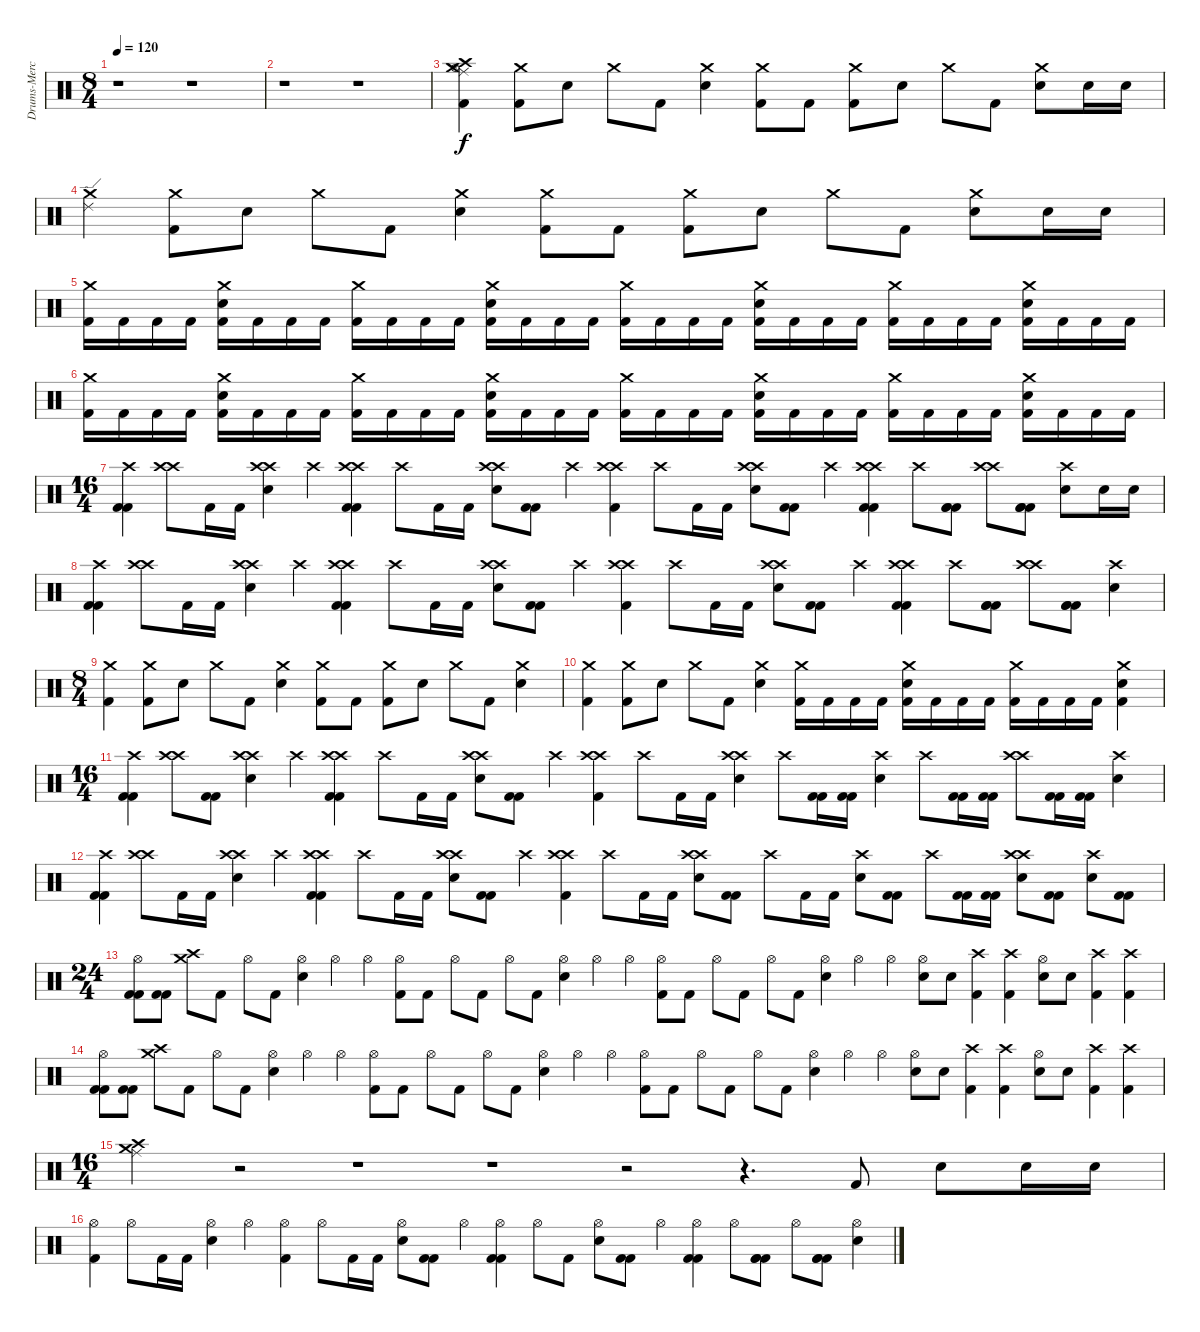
\track ("Drums-Mercedes" "Drums-Merc") {instrument percussion}
\staff {score}
\articulation defaults
\ts (8 4)
\tempo 120
\clef neutral
\ks c
r.1{dy f} r.1 |
r.1 r.1 |
("Crash medium (hit)" "Kick (hit) 2" "Hi-Hat (open)" "Ride (middle)" "Crash high (hit)").4 ("Crash medium (hit)" "Kick (hit) 2").8 "Electric Snare (hit)".8 "Crash medium (hit)".8 "Kick (hit) 2".8 ("Crash medium (hit)" "Electric Snare (hit)").4 ("Crash medium (hit)" "Kick (hit) 2").8 "Kick (hit) 2".8 ("Crash medium (hit)" "Kick (hit) 2").8 "Electric Snare (hit)".8 "Crash medium (hit)".8 "Kick (hit) 2".8 ("Crash medium (hit)" "Electric Snare (hit)").8 "Electric Snare (hit)".16 "Electric Snare (hit)".16 |
("Crash medium (hit)" "Ride (edge) 2").4 ("Crash medium (hit)" "Kick (hit) 2").8 "Electric Snare (hit)".8 "Crash medium (hit)".8 "Kick (hit) 2".8 ("Crash medium (hit)" "Electric Snare (hit)").4 ("Crash medium (hit)" "Kick (hit) 2").8 "Kick (hit) 2".8 ("Crash medium (hit)" "Kick (hit) 2").8 "Electric Snare (hit)".8 "Crash medium (hit)".8 "Kick (hit) 2".8 ("Crash medium (hit)" "Electric Snare (hit)").8 "Electric Snare (hit)".16 "Electric Snare (hit)".16 |
("Crash medium (hit)" "Kick (hit) 2").16 "Kick (hit) 2".16 "Kick (hit) 2".16 "Kick (hit) 2".16 ("Crash medium (hit)" "Kick (hit) 2" "Electric Snare (hit)").16 "Kick (hit) 2".16 "Kick (hit) 2".16 "Kick (hit) 2".16 ("Crash medium (hit)" "Kick (hit) 2").16 "Kick (hit) 2".16 "Kick (hit) 2".16 "Kick (hit) 2".16 ("Crash medium (hit)" "Kick (hit) 2" "Electric Snare (hit)").16 "Kick (hit) 2".16 "Kick (hit) 2".16 "Kick (hit) 2".16 ("Crash medium (hit)" "Kick (hit) 2").16 "Kick (hit) 2".16 "Kick (hit) 2".16 "Kick (hit) 2".16 ("Crash medium (hit)" "Kick (hit) 2" "Electric Snare (hit)").16 "Kick (hit) 2".16 "Kick (hit) 2".16 "Kick (hit) 2".16 ("Crash medium (hit)" "Kick (hit) 2").16 "Kick (hit) 2".16 "Kick (hit) 2".16 "Kick (hit) 2".16 ("Crash medium (hit)" "Kick (hit) 2" "Electric Snare (hit)").16 "Kick (hit) 2".16 "Kick (hit) 2".16 "Kick (hit) 2".16 |
("Crash medium (hit)" "Kick (hit) 2").16 "Kick (hit) 2".16 "Kick (hit) 2".16 "Kick (hit) 2".16 ("Crash medium (hit)" "Kick (hit) 2" "Electric Snare (hit)").16 "Kick (hit) 2".16 "Kick (hit) 2".16 "Kick (hit) 2".16 ("Crash medium (hit)" "Kick (hit) 2").16 "Kick (hit) 2".16 "Kick (hit) 2".16 "Kick (hit) 2".16 ("Crash medium (hit)" "Kick (hit) 2" "Electric Snare (hit)").16 "Kick (hit) 2".16 "Kick (hit) 2".16 "Kick (hit) 2".16 ("Crash medium (hit)" "Kick (hit) 2").16 "Kick (hit) 2".16 "Kick (hit) 2".16 "Kick (hit) 2".16 ("Crash medium (hit)" "Kick (hit) 2" "Electric Snare (hit)").16 "Kick (hit) 2".16 "Kick (hit) 2".16 "Kick (hit) 2".16 ("Crash medium (hit)" "Kick (hit) 2").16 "Kick (hit) 2".16 "Kick (hit) 2".16 "Kick (hit) 2".16 ("Crash medium (hit)" "Kick (hit) 2" "Electric Snare (hit)").16 "Kick (hit) 2".16 "Kick (hit) 2".16 "Kick (hit) 2".16 |
\ts (16 4)
("Crash high (hit)" "Kick (hit) 2" "Kick (hit) 2").4 ("Crash high (hit)" "Crash high (hit)").8 "Kick (hit) 2".16 "Kick (hit) 2".16 ("Crash high (hit)" "Crash high (hit)" "Electric Snare (hit)").4 "Crash high (hit)".4 ("Crash high (hit)" "Crash high (hit)" "Kick (hit) 2" "Kick (hit) 2").4 "Crash high (hit)".8 "Kick (hit) 2".16 "Kick (hit) 2".16 ("Crash high (hit)" "Crash high (hit)" "Electric Snare (hit)").8 ("Kick (hit) 2" "Kick (hit) 2").8 "Crash high (hit)".4 ("Crash high (hit)" "Crash high (hit)" "Kick (hit) 2").4 "Crash high (hit)".8 "Kick (hit) 2".16 "Kick (hit) 2".16 ("Crash high (hit)" "Crash high (hit)" "Electric Snare (hit)").8 ("Kick (hit) 2" "Kick (hit) 2").8 "Crash high (hit)".4 ("Crash high (hit)" "Crash high (hit)" "Kick (hit) 2" "Kick (hit) 2").4 "Crash high (hit)".8 ("Kick (hit) 2" "Kick (hit) 2" "Kick (hit) 2").8 ("Crash high (hit)" "Crash high (hit)").8 ("Kick (hit) 2" "Kick (hit) 2" "Kick (hit) 2").8 ("Crash high (hit)" "Electric Snare (hit)").8 "Electric Snare (hit)".16 "Electric Snare (hit)".16 |
("Crash high (hit)" "Kick (hit) 2" "Kick (hit) 2").4 ("Crash high (hit)" "Crash high (hit)").8 "Kick (hit) 2".16 "Kick (hit) 2".16 ("Crash high (hit)" "Crash high (hit)" "Electric Snare (hit)").4 "Crash high (hit)".4 ("Crash high (hit)" "Crash high (hit)" "Kick (hit) 2" "Kick (hit) 2").4 "Crash high (hit)".8 "Kick (hit) 2".16 "Kick (hit) 2".16 ("Crash high (hit)" "Crash high (hit)" "Electric Snare (hit)").8 ("Kick (hit) 2" "Kick (hit) 2").8 "Crash high (hit)".4 ("Crash high (hit)" "Crash high (hit)" "Kick (hit) 2").4 "Crash high (hit)".8 "Kick (hit) 2".16 "Kick (hit) 2".16 ("Crash high (hit)" "Crash high (hit)" "Electric Snare (hit)").8 ("Kick (hit) 2" "Kick (hit) 2").8 "Crash high (hit)".4 ("Crash high (hit)" "Crash high (hit)" "Kick (hit) 2" "Kick (hit) 2").4 "Crash high (hit)".8 ("Kick (hit) 2" "Kick (hit) 2" "Kick (hit) 2").8 ("Crash high (hit)" "Crash high (hit)").8 ("Kick (hit) 2" "Kick (hit) 2" "Kick (hit) 2").8 ("Crash high (hit)" "Electric Snare (hit)").4 |
\ts (8 4)
("Crash medium (hit)" "Kick (hit) 2").4 ("Crash medium (hit)" "Kick (hit) 2").8 "Electric Snare (hit)".8 "Crash medium (hit)".8 "Kick (hit) 2".8 ("Crash medium (hit)" "Electric Snare (hit)").4 ("Crash medium (hit)" "Kick (hit) 2").8 "Kick (hit) 2".8 ("Crash medium (hit)" "Kick (hit) 2").8 "Electric Snare (hit)".8 "Crash medium (hit)".8 "Kick (hit) 2".8 ("Crash medium (hit)" "Electric Snare (hit)").4 |
("Crash medium (hit)" "Kick (hit) 2").4 ("Crash medium (hit)" "Kick (hit) 2").8 "Electric Snare (hit)".8 "Crash medium (hit)".8 "Kick (hit) 2".8 ("Crash medium (hit)" "Electric Snare (hit)").4 ("Crash medium (hit)" "Kick (hit) 2").16 "Kick (hit) 2".16 "Kick (hit) 2".16 "Kick (hit) 2".16 ("Crash medium (hit)" "Electric Snare (hit)" "Kick (hit) 2").16 "Kick (hit) 2".16 "Kick (hit) 2".16 "Kick (hit) 2".16 ("Crash medium (hit)" "Kick (hit) 2").16 "Kick (hit) 2".16 "Kick (hit) 2".16 "Kick (hit) 2".16 ("Crash medium (hit)" "Electric Snare (hit)" "Kick (hit) 2").4 |
\ts (16 4)
("Crash high (hit)" "Kick (hit) 2" "Kick (hit) 2").4 ("Crash high (hit)" "Crash high (hit)").8 ("Kick (hit) 2" "Kick (hit) 2").8 ("Crash high (hit)" "Crash high (hit)" "Electric Snare (hit)").4 "Crash high (hit)".4 ("Crash high (hit)" "Crash high (hit)" "Kick (hit) 2" "Kick (hit) 2").4 "Crash high (hit)".8 "Kick (hit) 2".16 "Kick (hit) 2".16 ("Crash high (hit)" "Crash high (hit)" "Electric Snare (hit)").8 ("Kick (hit) 2" "Kick (hit) 2").8 "Crash high (hit)".4 ("Crash high (hit)" "Crash high (hit)" "Kick (hit) 2").4 "Crash high (hit)".8 "Kick (hit) 2".16 "Kick (hit) 2".16 ("Crash high (hit)" "Crash high (hit)" "Electric Snare (hit)").4 "Crash high (hit)".8 ("Kick (hit) 2" "Kick (hit) 2").16 ("Kick (hit) 2" "Kick (hit) 2").16 ("Crash high (hit)" "Electric Snare (hit)").4 "Crash high (hit)".8 ("Kick (hit) 2" "Kick (hit) 2").16 ("Kick (hit) 2" "Kick (hit) 2").16 ("Crash high (hit)" "Crash high (hit)").8 ("Kick (hit) 2" "Kick (hit) 2").16 ("Kick (hit) 2" "Kick (hit) 2").16 ("Crash high (hit)" "Electric Snare (hit)").4 |
("Crash high (hit)" "Kick (hit) 2" "Kick (hit) 2").4 ("Crash high (hit)" "Crash high (hit)").8 "Kick (hit) 2".16 "Kick (hit) 2".16 ("Crash high (hit)" "Crash high (hit)" "Electric Snare (hit)").4 "Crash high (hit)".4 ("Crash high (hit)" "Crash high (hit)" "Kick (hit) 2" "Kick (hit) 2").4 "Crash high (hit)".8 "Kick (hit) 2".16 "Kick (hit) 2".16 ("Crash high (hit)" "Crash high (hit)" "Electric Snare (hit)").8 ("Kick (hit) 2" "Kick (hit) 2").8 "Crash high (hit)".4 ("Crash high (hit)" "Crash high (hit)" "Kick (hit) 2").4 "Crash high (hit)".8 "Kick (hit) 2".16 "Kick (hit) 2".16 ("Crash high (hit)" "Crash high (hit)" "Electric Snare (hit)").8 ("Kick (hit) 2" "Kick (hit) 2").8 "Crash high (hit)".8 "Kick (hit) 2".16 "Kick (hit) 2".16 ("Crash high (hit)" "Electric Snare (hit)").8 ("Kick (hit) 2" "Kick (hit) 2").8 "Crash high (hit)".8 ("Kick (hit) 2" "Kick (hit) 2").16 ("Kick (hit) 2" "Kick (hit) 2").16 ("Crash high (hit)" "Crash high (hit)" "Electric Snare (hit)").8 ("Kick (hit) 2" "Kick (hit) 2").8 ("Crash high (hit)" "Electric Snare (hit)").8 ("Kick (hit) 2" "Kick (hit) 2").8 |
\ts (24 4)
("Hi-Hat (open)" "Kick (hit) 2" "Kick (hit) 2").8 ("Kick (hit) 2" "Kick (hit) 2").8 ("Crash high (hit)" "Crash medium (hit)").8 "Kick (hit) 2".8 "Hi-Hat (open)".8 "Kick (hit) 2".8 ("Hi-Hat (open)" "Electric Snare (hit)").4 "Hi-Hat (open)".4 "Hi-Hat (open)".4 ("Hi-Hat (open)" "Kick (hit) 2").8 "Kick (hit) 2".8 "Hi-Hat (open)".8 "Kick (hit) 2".8 "Hi-Hat (open)".8 "Kick (hit) 2".8 ("Hi-Hat (open)" "Electric Snare (hit)").4 "Hi-Hat (open)".4 "Hi-Hat (open)".4 ("Hi-Hat (open)" "Kick (hit) 2").8 "Kick (hit) 2".8 "Hi-Hat (open)".8 "Kick (hit) 2".8 "Hi-Hat (open)".8 "Kick (hit) 2".8 ("Hi-Hat (open)" "Electric Snare (hit)").4 "Hi-Hat (open)".4 "Hi-Hat (open)".4 ("Hi-Hat (open)" "Electric Snare (hit)").8 "Electric Snare (hit)".8 ("Crash high (hit)" "Kick (hit) 2").4 ("Crash high (hit)" "Kick (hit) 2").4 ("Hi-Hat (open)" "Electric Snare (hit)").8 "Electric Snare (hit)".8 ("Crash high (hit)" "Kick (hit) 2").4 ("Crash high (hit)" "Kick (hit) 2").4 |
("Hi-Hat (open)" "Kick (hit) 2" "Kick (hit) 2").8 ("Kick (hit) 2" "Kick (hit) 2").8 ("Crash high (hit)" "Crash medium (hit)").8 "Kick (hit) 2".8 "Hi-Hat (open)".8 "Kick (hit) 2".8 ("Hi-Hat (open)" "Electric Snare (hit)").4 "Hi-Hat (open)".4 "Hi-Hat (open)".4 ("Hi-Hat (open)" "Kick (hit) 2").8 "Kick (hit) 2".8 "Hi-Hat (open)".8 "Kick (hit) 2".8 "Hi-Hat (open)".8 "Kick (hit) 2".8 ("Hi-Hat (open)" "Electric Snare (hit)").4 "Hi-Hat (open)".4 "Hi-Hat (open)".4 ("Hi-Hat (open)" "Kick (hit) 2").8 "Kick (hit) 2".8 "Hi-Hat (open)".8 "Kick (hit) 2".8 "Hi-Hat (open)".8 "Kick (hit) 2".8 ("Hi-Hat (open)" "Electric Snare (hit)").4 "Hi-Hat (open)".4 "Hi-Hat (open)".4 ("Hi-Hat (open)" "Electric Snare (hit)").8 "Electric Snare (hit)".8 ("Crash high (hit)" "Kick (hit) 2").4 ("Crash high (hit)" "Kick (hit) 2").4 ("Hi-Hat (open)" "Electric Snare (hit)").8 "Electric Snare (hit)".8 ("Crash high (hit)" "Kick (hit) 2").4 ("Crash high (hit)" "Kick (hit) 2").4 |
\ts (16 4)
("Crash high (hit)" "Crash medium (hit)" "Ride (middle)").4 r.2 r.1 r.1 r.2 r.4{d} "Kick (hit) 2".8 "Electric Snare (hit)".8 "Electric Snare (hit)".16 "Electric Snare (hit)".16 |
("Hi-Hat (open)" "Kick (hit) 2").4 "Hi-Hat (open)".8 "Kick (hit) 2".16 "Kick (hit) 2".16 ("Hi-Hat (open)" "Electric Snare (hit)").4 "Hi-Hat (open)".4 ("Hi-Hat (open)" "Kick (hit) 2").4 "Hi-Hat (open)".8 "Kick (hit) 2".16 "Kick (hit) 2".16 ("Hi-Hat (open)" "Electric Snare (hit)").8 ("Kick (hit) 2" "Kick (hit) 2").8 "Hi-Hat (open)".4 ("Hi-Hat (open)" "Kick (hit) 2" "Kick (hit) 2").4 "Hi-Hat (open)".8 "Kick (hit) 2".8 ("Hi-Hat (open)" "Electric Snare (hit)").8 ("Kick (hit) 2" "Kick (hit) 2").8 "Hi-Hat (open)".4 ("Hi-Hat (open)" "Kick (hit) 2" "Kick (hit) 2").4 "Hi-Hat (open)".8 ("Kick (hit) 2" "Kick (hit) 2" "Kick (hit) 2").8 "Hi-Hat (open)".8 ("Kick (hit) 2" "Kick (hit) 2" "Kick (hit) 2").8 ("Hi-Hat (open)" "Electric Snare (hit)").4
